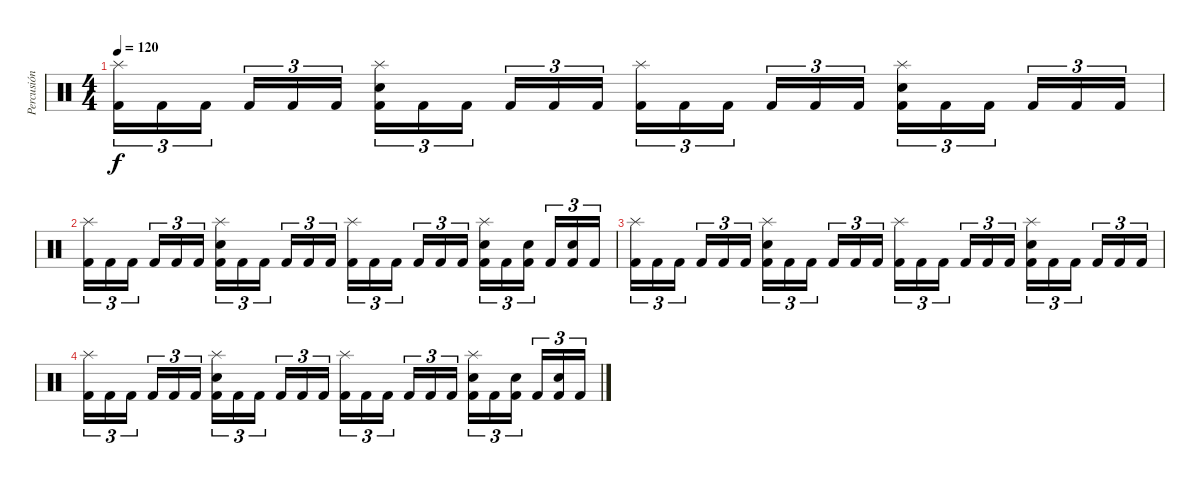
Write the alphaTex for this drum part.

\track ("Percusión" "Percusión") {instrument percussion}
\staff {score}
\articulation defaults
\ts (4 4)
\tempo 120
\clef neutral
\ks c
("Splash (hit)" "Kick (hit) 2").16{tu (3 2) dy f} "Kick (hit) 2".16{tu (3 2)} "Kick (hit) 2".16{tu (3 2) beam splitsecondary} "Kick (hit) 2".16{tu (3 2)} "Kick (hit) 2".16{tu (3 2)} "Kick (hit) 2".16{tu (3 2)} ("Splash (hit)" "Electric Snare (hit)" "Kick (hit) 2").16{tu (3 2)} "Kick (hit) 2".16{tu (3 2)} "Kick (hit) 2".16{tu (3 2) beam splitsecondary} "Kick (hit) 2".16{tu (3 2)} "Kick (hit) 2".16{tu (3 2)} "Kick (hit) 2".16{tu (3 2)} ("Splash (hit)" "Kick (hit) 2").16{tu (3 2)} "Kick (hit) 2".16{tu (3 2)} "Kick (hit) 2".16{tu (3 2) beam splitsecondary} "Kick (hit) 2".16{tu (3 2)} "Kick (hit) 2".16{tu (3 2)} "Kick (hit) 2".16{tu (3 2)} ("Splash (hit)" "Electric Snare (hit)" "Kick (hit) 2").16{tu (3 2)} "Kick (hit) 2".16{tu (3 2)} "Kick (hit) 2".16{tu (3 2) beam splitsecondary} "Kick (hit) 2".16{tu (3 2)} "Kick (hit) 2".16{tu (3 2)} "Kick (hit) 2".16{tu (3 2)} |
("Splash (hit)" "Kick (hit) 2").16{tu (3 2)} "Kick (hit) 2".16{tu (3 2)} "Kick (hit) 2".16{tu (3 2) beam splitsecondary} "Kick (hit) 2".16{tu (3 2)} "Kick (hit) 2".16{tu (3 2)} "Kick (hit) 2".16{tu (3 2)} ("Splash (hit)" "Electric Snare (hit)" "Kick (hit) 2").16{tu (3 2)} "Kick (hit) 2".16{tu (3 2)} "Kick (hit) 2".16{tu (3 2) beam splitsecondary} "Kick (hit) 2".16{tu (3 2)} "Kick (hit) 2".16{tu (3 2)} "Kick (hit) 2".16{tu (3 2)} ("Splash (hit)" "Kick (hit) 2").16{tu (3 2)} "Kick (hit) 2".16{tu (3 2)} "Kick (hit) 2".16{tu (3 2) beam splitsecondary} "Kick (hit) 2".16{tu (3 2)} "Kick (hit) 2".16{tu (3 2)} "Kick (hit) 2".16{tu (3 2)} ("Splash (hit)" "Electric Snare (hit)" "Kick (hit) 2").16{tu (3 2)} "Kick (hit) 2".16{tu (3 2)} ("Electric Snare (hit)" "Kick (hit) 2").16{tu (3 2) beam splitsecondary} "Kick (hit) 2".16{tu (3 2)} ("Electric Snare (hit)" "Kick (hit) 2").16{tu (3 2)} "Kick (hit) 2".16{tu (3 2)} |
("Splash (hit)" "Kick (hit) 2").16{tu (3 2)} "Kick (hit) 2".16{tu (3 2)} "Kick (hit) 2".16{tu (3 2) beam splitsecondary} "Kick (hit) 2".16{tu (3 2)} "Kick (hit) 2".16{tu (3 2)} "Kick (hit) 2".16{tu (3 2)} ("Splash (hit)" "Electric Snare (hit)" "Kick (hit) 2").16{tu (3 2)} "Kick (hit) 2".16{tu (3 2)} "Kick (hit) 2".16{tu (3 2) beam splitsecondary} "Kick (hit) 2".16{tu (3 2)} "Kick (hit) 2".16{tu (3 2)} "Kick (hit) 2".16{tu (3 2)} ("Splash (hit)" "Kick (hit) 2").16{tu (3 2)} "Kick (hit) 2".16{tu (3 2)} "Kick (hit) 2".16{tu (3 2) beam splitsecondary} "Kick (hit) 2".16{tu (3 2)} "Kick (hit) 2".16{tu (3 2)} "Kick (hit) 2".16{tu (3 2)} ("Splash (hit)" "Electric Snare (hit)" "Kick (hit) 2").16{tu (3 2)} "Kick (hit) 2".16{tu (3 2)} "Kick (hit) 2".16{tu (3 2) beam splitsecondary} "Kick (hit) 2".16{tu (3 2)} "Kick (hit) 2".16{tu (3 2)} "Kick (hit) 2".16{tu (3 2)} |
("Splash (hit)" "Kick (hit) 2").16{tu (3 2)} "Kick (hit) 2".16{tu (3 2)} "Kick (hit) 2".16{tu (3 2) beam splitsecondary} "Kick (hit) 2".16{tu (3 2)} "Kick (hit) 2".16{tu (3 2)} "Kick (hit) 2".16{tu (3 2)} ("Splash (hit)" "Electric Snare (hit)" "Kick (hit) 2").16{tu (3 2)} "Kick (hit) 2".16{tu (3 2)} "Kick (hit) 2".16{tu (3 2) beam splitsecondary} "Kick (hit) 2".16{tu (3 2)} "Kick (hit) 2".16{tu (3 2)} "Kick (hit) 2".16{tu (3 2)} ("Splash (hit)" "Kick (hit) 2").16{tu (3 2)} "Kick (hit) 2".16{tu (3 2)} "Kick (hit) 2".16{tu (3 2) beam splitsecondary} "Kick (hit) 2".16{tu (3 2)} "Kick (hit) 2".16{tu (3 2)} "Kick (hit) 2".16{tu (3 2)} ("Splash (hit)" "Electric Snare (hit)" "Kick (hit) 2").16{tu (3 2)} "Kick (hit) 2".16{tu (3 2)} ("Electric Snare (hit)" "Kick (hit) 2").16{tu (3 2) beam splitsecondary} "Kick (hit) 2".16{tu (3 2)} ("Electric Snare (hit)" "Kick (hit) 2").16{tu (3 2)} "Kick (hit) 2".16{tu (3 2)}
